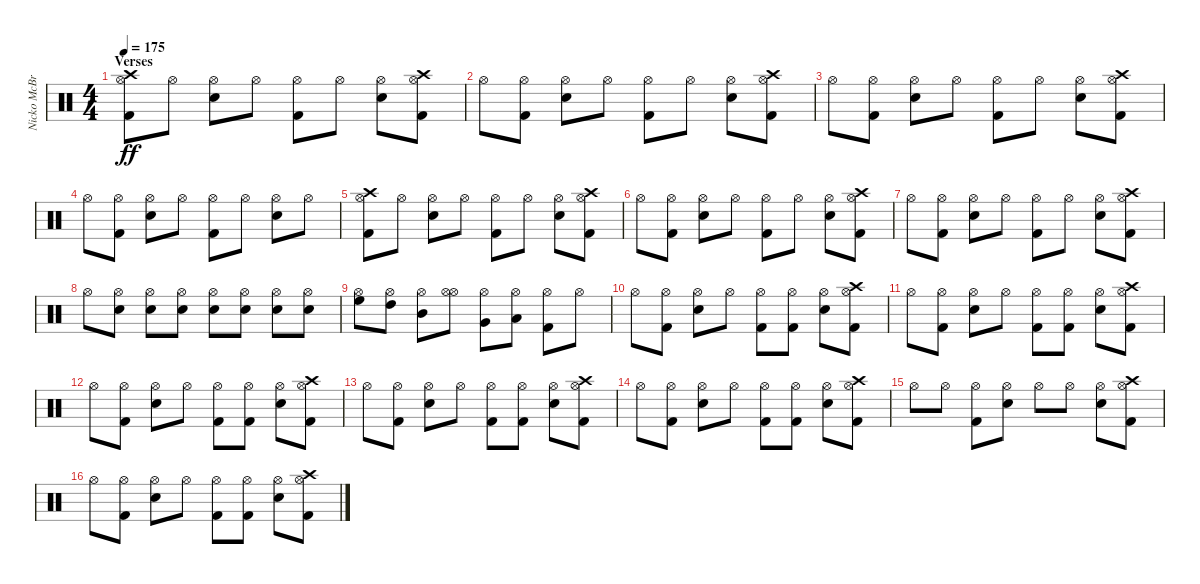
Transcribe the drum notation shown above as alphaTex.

\track ("Nicko McBrain" "Nicko McBr") {instrument percussion}
\staff {score}
\articulation defaults
\ts (4 4)
\section ("" "Verses")
\tempo 175
\clef neutral
\ks c
("Kick (hit) 2" "Hi-Hat (open)" "Crash high (hit)").8{dy ff} "Hi-Hat (open)".8 ("Snare (hit) 2" "Hi-Hat (open)").8 "Hi-Hat (open)".8 ("Kick (hit) 2" "Hi-Hat (open)").8 "Hi-Hat (open)".8 ("Snare (hit) 2" "Hi-Hat (open)").8 ("Kick (hit) 2" "Hi-Hat (open)" "Crash high (hit)").8 |
"Hi-Hat (open)".8 ("Kick (hit) 2" "Hi-Hat (open)").8 ("Snare (hit) 2" "Hi-Hat (open)").8 "Hi-Hat (open)".8 ("Kick (hit) 2" "Hi-Hat (open)").8 "Hi-Hat (open)".8 ("Snare (hit) 2" "Hi-Hat (open)").8 ("Kick (hit) 2" "Hi-Hat (open)" "Crash high (hit)").8 |
"Hi-Hat (open)".8 ("Kick (hit) 2" "Hi-Hat (open)").8 ("Snare (hit) 2" "Hi-Hat (open)").8 "Hi-Hat (open)".8 ("Kick (hit) 2" "Hi-Hat (open)").8 "Hi-Hat (open)".8 ("Snare (hit) 2" "Hi-Hat (open)").8 ("Kick (hit) 2" "Hi-Hat (open)" "Crash high (hit)").8 |
"Hi-Hat (open)".8 ("Kick (hit) 2" "Hi-Hat (open)").8 ("Snare (hit) 2" "Hi-Hat (open)").8 "Hi-Hat (open)".8 ("Kick (hit) 2" "Hi-Hat (open)").8 "Hi-Hat (open)".8 ("Snare (hit) 2" "Hi-Hat (open)").8 "Hi-Hat (open)".8 |
("Kick (hit) 2" "Hi-Hat (open)" "Crash high (hit)").8 "Hi-Hat (open)".8 ("Snare (hit) 2" "Hi-Hat (open)").8 "Hi-Hat (open)".8 ("Kick (hit) 2" "Hi-Hat (open)").8 "Hi-Hat (open)".8 ("Snare (hit) 2" "Hi-Hat (open)").8 ("Kick (hit) 2" "Hi-Hat (open)" "Crash high (hit)").8 |
"Hi-Hat (open)".8 ("Kick (hit) 2" "Hi-Hat (open)").8 ("Snare (hit) 2" "Hi-Hat (open)").8 "Hi-Hat (open)".8 ("Kick (hit) 2" "Hi-Hat (open)").8 "Hi-Hat (open)".8 ("Snare (hit) 2" "Hi-Hat (open)").8 ("Kick (hit) 2" "Hi-Hat (open)" "Crash high (hit)").8 |
"Hi-Hat (open)".8 ("Kick (hit) 2" "Hi-Hat (open)").8 ("Snare (hit) 2" "Hi-Hat (open)").8 "Hi-Hat (open)".8 ("Kick (hit) 2" "Hi-Hat (open)").8 "Hi-Hat (open)".8 ("Snare (hit) 2" "Hi-Hat (open)").8 ("Kick (hit) 2" "Hi-Hat (open)" "Crash high (hit)").8 |
"Hi-Hat (open)".8 ("Snare (hit) 2" "Hi-Hat (open)").8 ("Snare (hit) 2" "Hi-Hat (open)").8 ("Snare (hit) 2" "Hi-Hat (open)").8 ("Snare (hit) 2" "Hi-Hat (open)").8 ("Snare (hit) 2" "Hi-Hat (open)").8 ("Snare (hit) 2" "Hi-Hat (open)").8 ("Snare (hit) 2" "Hi-Hat (open)").8 |
("Hi-Hat (open)" "High Floor Tom (hit)").8 ("Hi-Hat (open)" "High Tom (hit)").8 ("Hi-Hat (open)" "Mid Tom (hit)").8 ("Hi-Hat (open)" "Hi-Hat (open)").8 ("Very Low Tom (hit)" "Hi-Hat (open)").8 ("Low Floor Tom (hit)" "Hi-Hat (open)").8 ("Kick (hit) 2" "Hi-Hat (open)").8 "Hi-Hat (open)".8 |
"Hi-Hat (open)".8 ("Kick (hit) 2" "Hi-Hat (open)").8 ("Snare (hit) 2" "Hi-Hat (open)").8 "Hi-Hat (open)".8 ("Kick (hit) 2" "Hi-Hat (open)").8 ("Kick (hit) 2" "Hi-Hat (open)").8 ("Snare (hit) 2" "Hi-Hat (open)").8 ("Kick (hit) 2" "Hi-Hat (open)" "Crash high (hit)").8 |
"Hi-Hat (open)".8 ("Kick (hit) 2" "Hi-Hat (open)").8 ("Snare (hit) 2" "Hi-Hat (open)").8 "Hi-Hat (open)".8 ("Kick (hit) 2" "Hi-Hat (open)").8 ("Kick (hit) 2" "Hi-Hat (open)").8 ("Snare (hit) 2" "Hi-Hat (open)").8 ("Kick (hit) 2" "Hi-Hat (open)" "Crash high (hit)").8 |
"Hi-Hat (open)".8 ("Kick (hit) 2" "Hi-Hat (open)").8 ("Snare (hit) 2" "Hi-Hat (open)").8 "Hi-Hat (open)".8 ("Kick (hit) 2" "Hi-Hat (open)").8 ("Kick (hit) 2" "Hi-Hat (open)").8 ("Snare (hit) 2" "Hi-Hat (open)").8 ("Kick (hit) 2" "Hi-Hat (open)" "Crash high (hit)").8 |
"Hi-Hat (open)".8 ("Kick (hit) 2" "Hi-Hat (open)").8 ("Snare (hit) 2" "Hi-Hat (open)").8 "Hi-Hat (open)".8 ("Kick (hit) 2" "Hi-Hat (open)").8 ("Kick (hit) 2" "Hi-Hat (open)").8 ("Snare (hit) 2" "Hi-Hat (open)").8 ("Kick (hit) 2" "Hi-Hat (open)" "Crash high (hit)").8 |
"Hi-Hat (open)".8 ("Kick (hit) 2" "Hi-Hat (open)").8 ("Snare (hit) 2" "Hi-Hat (open)").8 "Hi-Hat (open)".8 ("Kick (hit) 2" "Hi-Hat (open)").8 ("Kick (hit) 2" "Hi-Hat (open)").8 ("Snare (hit) 2" "Hi-Hat (open)").8 ("Kick (hit) 2" "Hi-Hat (open)" "Crash high (hit)").8 |
"Hi-Hat (open)".8 "Hi-Hat (open)".8 ("Kick (hit) 2" "Hi-Hat (open)").8 ("Snare (hit) 2" "Hi-Hat (open)").8 "Hi-Hat (open)".8 "Hi-Hat (open)".8 ("Snare (hit) 2" "Hi-Hat (open)").8 ("Kick (hit) 2" "Hi-Hat (open)" "Crash high (hit)").8 |
"Hi-Hat (open)".8 ("Kick (hit) 2" "Hi-Hat (open)").8 ("Snare (hit) 2" "Hi-Hat (open)").8 "Hi-Hat (open)".8 ("Kick (hit) 2" "Hi-Hat (open)").8 ("Kick (hit) 2" "Hi-Hat (open)").8 ("Snare (hit) 2" "Hi-Hat (open)").8 ("Kick (hit) 2" "Hi-Hat (open)" "Crash high (hit)").8
